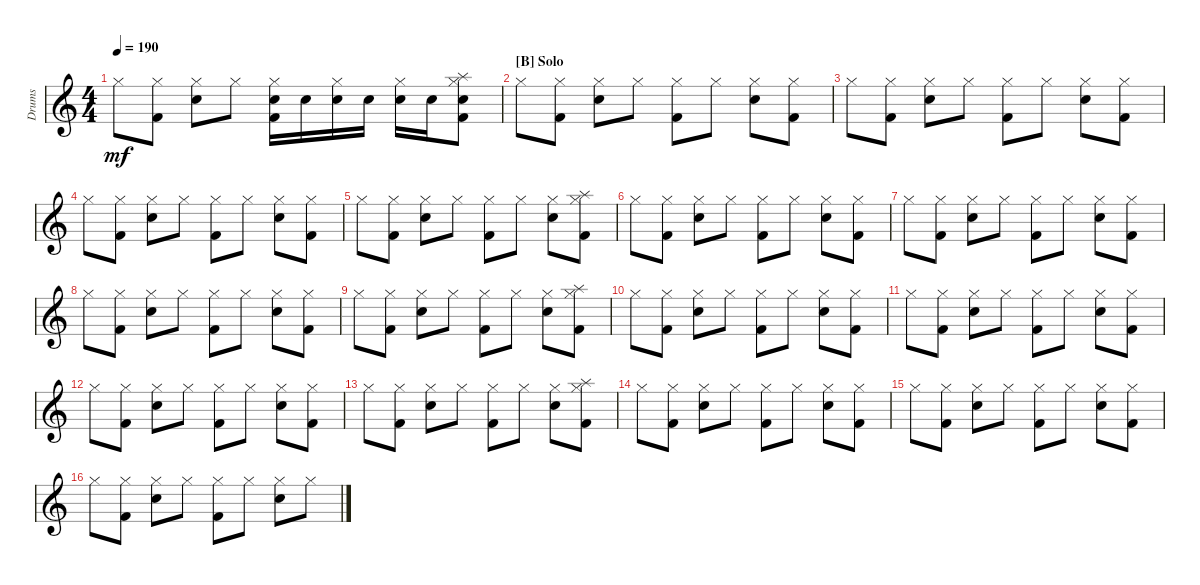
\defaultSystemsLayout 4
\bracketExtendMode groupsimilarinstruments
\otherSystemsTrackNameOrientation horizontal
\track ("Prakarsh" "Drums") {instrument percussion}
\staff {score}
\articulation defaults
\ts (4 4)
\tempo 190
\clef g2
\ks c "Hi-Hat (closed)".8{dy mf beam Down}
("Hi-Hat (closed)" "Kick (hit) 2").8{beam Down} ("Hi-Hat (closed)" "Snare (hit) 2").8{beam Down} "Hi-Hat (closed)".8{beam Down} ("Hi-Hat (closed)" "Kick (hit) 2" "Snare (hit) 2").16{beam Down} "Snare (hit) 2".16{beam Down} ("Hi-Hat (closed)" "Snare (hit) 2").16{beam Down} "Snare (hit) 2".16{beam Down} ("Hi-Hat (closed)" "Snare (hit) 2").16{beam Down} "Snare (hit) 2".16{beam Down} ("Hi-Hat (closed)" "Kick (hit) 2" "Splash (hit)" "Snare (hit) 2").8{beam Down} |
\section ("B" "Solo")
"Hi-Hat (closed)".8{beam Down} ("Hi-Hat (closed)" "Kick (hit) 2").8{beam Down} ("Hi-Hat (closed)" "Snare (hit) 2").8{beam Down} "Hi-Hat (closed)".8{beam Down} ("Hi-Hat (closed)" "Kick (hit) 2").8{beam Down} "Hi-Hat (closed)".8{beam Down} ("Hi-Hat (closed)" "Snare (hit) 2").8{beam Down} ("Hi-Hat (closed)" "Kick (hit) 2").8{beam Down} |
"Hi-Hat (closed)".8{beam Down} ("Hi-Hat (closed)" "Kick (hit) 2").8{beam Down} ("Hi-Hat (closed)" "Snare (hit) 2").8{beam Down} "Hi-Hat (closed)".8{beam Down} ("Hi-Hat (closed)" "Kick (hit) 2").8{beam Down} "Hi-Hat (closed)".8{beam Down} ("Hi-Hat (closed)" "Snare (hit) 2").8{beam Down} ("Hi-Hat (closed)" "Kick (hit) 2").8{beam Down} |
"Hi-Hat (closed)".8{beam Down} ("Hi-Hat (closed)" "Kick (hit) 2").8{beam Down} ("Hi-Hat (closed)" "Snare (hit) 2").8{beam Down} "Hi-Hat (closed)".8{beam Down} ("Hi-Hat (closed)" "Kick (hit) 2").8{beam Down} "Hi-Hat (closed)".8{beam Down} ("Hi-Hat (closed)" "Snare (hit) 2").8{beam Down} ("Hi-Hat (closed)" "Kick (hit) 2").8{beam Down} |
"Hi-Hat (closed)".8{beam Down} ("Hi-Hat (closed)" "Kick (hit) 2").8{beam Down} ("Hi-Hat (closed)" "Snare (hit) 2").8{beam Down} "Hi-Hat (closed)".8{beam Down} ("Hi-Hat (closed)" "Kick (hit) 2").8{beam Down} "Hi-Hat (closed)".8{beam Down} ("Hi-Hat (closed)" "Snare (hit) 2").8{beam Down} ("Hi-Hat (closed)" "Kick (hit) 2" "Splash (hit)").8{beam Down} |
"Hi-Hat (closed)".8{beam Down} ("Hi-Hat (closed)" "Kick (hit) 2").8{beam Down} ("Hi-Hat (closed)" "Snare (hit) 2").8{beam Down} "Hi-Hat (closed)".8{beam Down} ("Hi-Hat (closed)" "Kick (hit) 2").8{beam Down} "Hi-Hat (closed)".8{beam Down} ("Hi-Hat (closed)" "Snare (hit) 2").8{beam Down} ("Hi-Hat (closed)" "Kick (hit) 2").8{beam Down} |
"Hi-Hat (closed)".8{beam Down} ("Hi-Hat (closed)" "Kick (hit) 2").8{beam Down} ("Hi-Hat (closed)" "Snare (hit) 2").8{beam Down} "Hi-Hat (closed)".8{beam Down} ("Hi-Hat (closed)" "Kick (hit) 2").8{beam Down} "Hi-Hat (closed)".8{beam Down} ("Hi-Hat (closed)" "Snare (hit) 2").8{beam Down} ("Hi-Hat (closed)" "Kick (hit) 2").8{beam Down} |
"Hi-Hat (closed)".8{beam Down} ("Hi-Hat (closed)" "Kick (hit) 2").8{beam Down} ("Hi-Hat (closed)" "Snare (hit) 2").8{beam Down} "Hi-Hat (closed)".8{beam Down} ("Hi-Hat (closed)" "Kick (hit) 2").8{beam Down} "Hi-Hat (closed)".8{beam Down} ("Hi-Hat (closed)" "Snare (hit) 2").8{beam Down} ("Hi-Hat (closed)" "Kick (hit) 2").8{beam Down} |
"Hi-Hat (closed)".8{beam Down} ("Hi-Hat (closed)" "Kick (hit) 2").8{beam Down} ("Hi-Hat (closed)" "Snare (hit) 2").8{beam Down} "Hi-Hat (closed)".8{beam Down} ("Hi-Hat (closed)" "Kick (hit) 2").8{beam Down} "Hi-Hat (closed)".8{beam Down} ("Hi-Hat (closed)" "Snare (hit) 2").8{beam Down} ("Hi-Hat (closed)" "Kick (hit) 2" "Splash (hit)").8{beam Down} |
"Hi-Hat (closed)".8{beam Down} ("Hi-Hat (closed)" "Kick (hit) 2").8{beam Down} ("Hi-Hat (closed)" "Snare (hit) 2").8{beam Down} "Hi-Hat (closed)".8{beam Down} ("Hi-Hat (closed)" "Kick (hit) 2").8{beam Down} "Hi-Hat (closed)".8{beam Down} ("Hi-Hat (closed)" "Snare (hit) 2").8{beam Down} ("Hi-Hat (closed)" "Kick (hit) 2").8{beam Down} |
"Hi-Hat (closed)".8{beam Down} ("Hi-Hat (closed)" "Kick (hit) 2").8{beam Down} ("Hi-Hat (closed)" "Snare (hit) 2").8{beam Down} "Hi-Hat (closed)".8{beam Down} ("Hi-Hat (closed)" "Kick (hit) 2").8{beam Down} "Hi-Hat (closed)".8{beam Down} ("Hi-Hat (closed)" "Snare (hit) 2").8{beam Down} ("Hi-Hat (closed)" "Kick (hit) 2").8{beam Down} |
"Hi-Hat (closed)".8{beam Down} ("Hi-Hat (closed)" "Kick (hit) 2").8{beam Down} ("Hi-Hat (closed)" "Snare (hit) 2").8{beam Down} "Hi-Hat (closed)".8{beam Down} ("Hi-Hat (closed)" "Kick (hit) 2").8{beam Down} "Hi-Hat (closed)".8{beam Down} ("Hi-Hat (closed)" "Snare (hit) 2").8{beam Down} ("Hi-Hat (closed)" "Kick (hit) 2").8{beam Down} |
"Hi-Hat (closed)".8{beam Down} ("Hi-Hat (closed)" "Kick (hit) 2").8{beam Down} ("Hi-Hat (closed)" "Snare (hit) 2").8{beam Down} "Hi-Hat (closed)".8{beam Down} ("Hi-Hat (closed)" "Kick (hit) 2").8{beam Down} "Hi-Hat (closed)".8{beam Down} ("Hi-Hat (closed)" "Snare (hit) 2").8{beam Down} ("Hi-Hat (closed)" "Kick (hit) 2" "Splash (hit)").8{beam Down} |
"Hi-Hat (closed)".8{beam Down} ("Hi-Hat (closed)" "Kick (hit) 2").8{beam Down} ("Hi-Hat (closed)" "Snare (hit) 2").8{beam Down} "Hi-Hat (closed)".8{beam Down} ("Hi-Hat (closed)" "Kick (hit) 2").8{beam Down} "Hi-Hat (closed)".8{beam Down} ("Hi-Hat (closed)" "Snare (hit) 2").8{beam Down} ("Hi-Hat (closed)" "Kick (hit) 2").8{beam Down} |
"Hi-Hat (closed)".8{beam Down} ("Hi-Hat (closed)" "Kick (hit) 2").8{beam Down} ("Hi-Hat (closed)" "Snare (hit) 2").8{beam Down} "Hi-Hat (closed)".8{beam Down} ("Hi-Hat (closed)" "Kick (hit) 2").8{beam Down} "Hi-Hat (closed)".8{beam Down} ("Hi-Hat (closed)" "Snare (hit) 2").8{beam Down} ("Hi-Hat (closed)" "Kick (hit) 2").8{beam Down} |
"Hi-Hat (closed)".8{beam Down} ("Hi-Hat (closed)" "Kick (hit) 2").8{beam Down} ("Hi-Hat (closed)" "Snare (hit) 2").8{beam Down} "Hi-Hat (closed)".8{beam Down} ("Hi-Hat (closed)" "Kick (hit) 2").8{beam Down} "Hi-Hat (closed)".8{beam Down} ("Hi-Hat (closed)" "Snare (hit) 2").8{beam Down} "Hi-Hat (closed)".8{beam Down}
